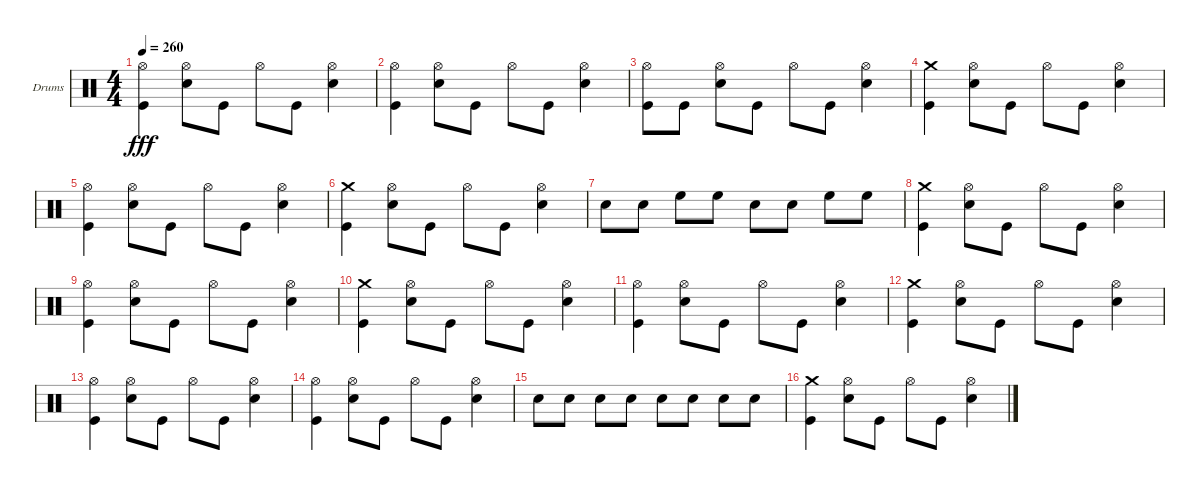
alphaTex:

\defaultSystemsLayout 4
\bracketExtendMode groupsimilarinstruments
\firstSystemTrackNameOrientation horizontal
\otherSystemsTrackNameOrientation horizontal
\track ("Stefan Schwarzmann" "Drums") {instrument percussion}
\staff {score}
\articulation defaults
\ts (4 4)
\tempo 260
\clef neutral
\ks c
("Kick (hit)" "Hi-Hat (open)").4{dy fff} ("Snare (hit) 2" "Hi-Hat (open)").8 "Kick (hit)".8 "Hi-Hat (open)".8 "Kick (hit)".8 ("Snare (hit) 2" "Hi-Hat (open)").4 |
("Kick (hit)" "Hi-Hat (open)").4 ("Snare (hit) 2" "Hi-Hat (open)").8 "Kick (hit)".8 "Hi-Hat (open)".8 "Kick (hit)".8 ("Snare (hit) 2" "Hi-Hat (open)").4 |
("Kick (hit)" "Hi-Hat (open)").8 "Kick (hit)".8 ("Snare (hit) 2" "Hi-Hat (open)").8 "Kick (hit)".8 "Hi-Hat (open)".8 "Kick (hit)".8 ("Snare (hit) 2" "Hi-Hat (open)").4 |
("Kick (hit)" "Crash medium (hit)").4 ("Snare (hit) 2" "Hi-Hat (open)").8 "Kick (hit)".8 "Hi-Hat (open)".8 "Kick (hit)".8 ("Snare (hit) 2" "Hi-Hat (open)").4 |
("Kick (hit)" "Hi-Hat (open)").4 ("Snare (hit) 2" "Hi-Hat (open)").8 "Kick (hit)".8 "Hi-Hat (open)".8 "Kick (hit)".8 ("Snare (hit) 2" "Hi-Hat (open)").4 |
("Kick (hit)" "Crash medium (hit)").4 ("Snare (hit) 2" "Hi-Hat (open)").8 "Kick (hit)".8 "Hi-Hat (open)".8 "Kick (hit)".8 ("Snare (hit) 2" "Hi-Hat (open)").4 |
"Snare (hit) 2".8 "Snare (hit) 2".8 "High Floor Tom (hit)".8 "High Floor Tom (hit)".8 "Snare (hit) 2".8 "Snare (hit) 2".8 "High Floor Tom (hit)".8 "High Floor Tom (hit)".8 |
("Kick (hit)" "Crash medium (hit)").4 ("Snare (hit) 2" "Hi-Hat (open)").8 "Kick (hit)".8 "Hi-Hat (open)".8 "Kick (hit)".8 ("Snare (hit) 2" "Hi-Hat (open)").4 |
("Kick (hit)" "Hi-Hat (open)").4 ("Snare (hit) 2" "Hi-Hat (open)").8 "Kick (hit)".8 "Hi-Hat (open)".8 "Kick (hit)".8 ("Snare (hit) 2" "Hi-Hat (open)").4 |
("Kick (hit)" "Crash medium (hit)").4 ("Snare (hit) 2" "Hi-Hat (open)").8 "Kick (hit)".8 "Hi-Hat (open)".8 "Kick (hit)".8 ("Snare (hit) 2" "Hi-Hat (open)").4 |
("Kick (hit)" "Hi-Hat (open)").4 ("Snare (hit) 2" "Hi-Hat (open)").8 "Kick (hit)".8 "Hi-Hat (open)".8 "Kick (hit)".8 ("Snare (hit) 2" "Hi-Hat (open)").4 |
("Kick (hit)" "Crash medium (hit)").4 ("Snare (hit) 2" "Hi-Hat (open)").8 "Kick (hit)".8 "Hi-Hat (open)".8 "Kick (hit)".8 ("Snare (hit) 2" "Hi-Hat (open)").4 |
("Kick (hit)" "Hi-Hat (open)").4 ("Snare (hit) 2" "Hi-Hat (open)").8 "Kick (hit)".8 "Hi-Hat (open)".8 "Kick (hit)".8 ("Snare (hit) 2" "Hi-Hat (open)").4 |
("Kick (hit)" "Hi-Hat (open)").4 ("Snare (hit) 2" "Hi-Hat (open)").8 "Kick (hit)".8 "Hi-Hat (open)".8 "Kick (hit)".8 ("Snare (hit) 2" "Hi-Hat (open)").4 |
"Snare (hit) 2".8 "Snare (hit) 2".8 "Snare (hit) 2".8 "Snare (hit) 2".8 "Snare (hit) 2".8 "Snare (hit) 2".8 "Snare (hit) 2".8 "Snare (hit) 2".8 |
("Kick (hit)" "Crash medium (hit)").4 ("Snare (hit) 2" "Hi-Hat (open)").8 "Kick (hit)".8 "Hi-Hat (open)".8 "Kick (hit)".8 ("Snare (hit) 2" "Hi-Hat (open)").4
